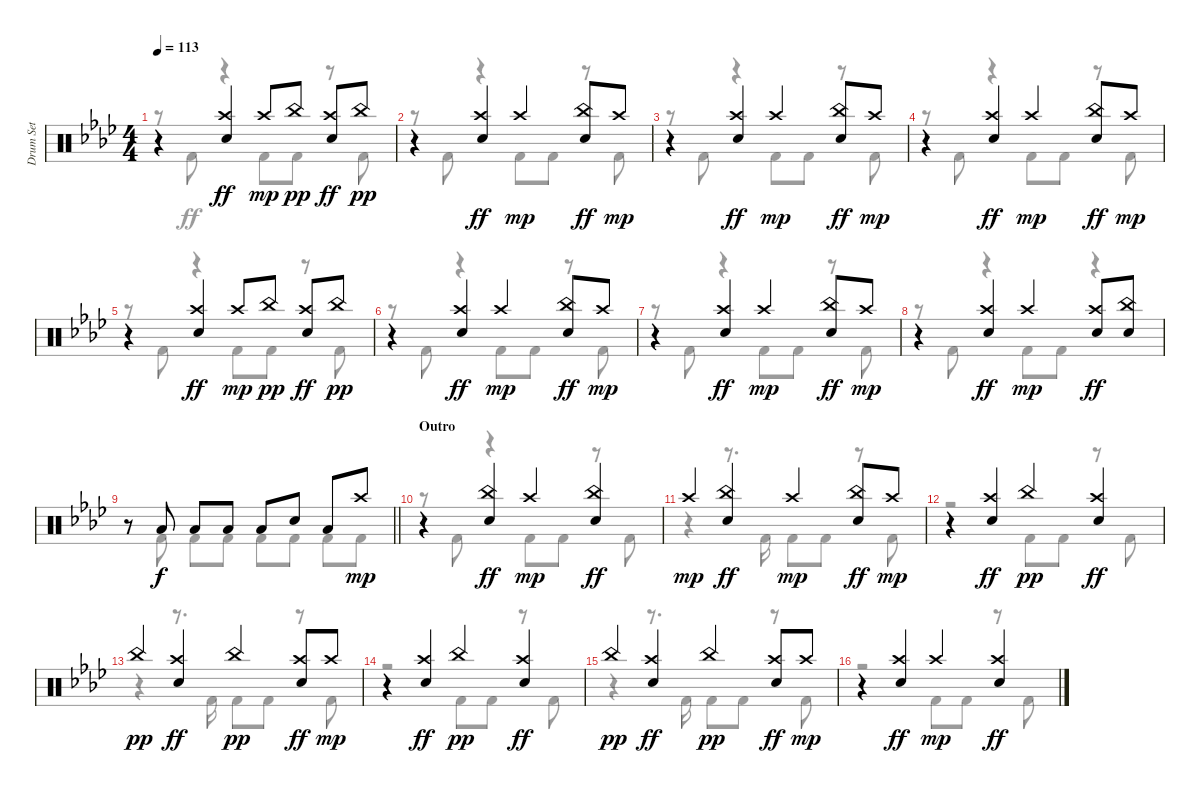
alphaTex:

\track ("Drum Set" "Drum Set") {instrument percussion}
\staff {score}
\articulation defaults
\voice
\ts (4 4)
\tempo 113
\clef neutral
\ks fminor
r.4{dy mp} ("Crash high (hit)" "Electric Snare (hit)").4{dy ff} "Crash high (hit)".8{dy mp} "China (hit)".8{dy pp} ("Crash high (hit)" "Electric Snare (hit)").8{dy ff} "China (hit)".8{dy pp} |
r.4 ("Crash high (hit)" "Electric Snare (hit)").4{dy ff} "Crash high (hit)".4{dy mp} ("China (hit)" "Electric Snare (hit)").8{dy ff} "Crash high (hit)".8{dy mp} |
r.4 ("Crash high (hit)" "Electric Snare (hit)").4{dy ff} "Crash high (hit)".4{dy mp} ("China (hit)" "Electric Snare (hit)").8{dy ff} "Crash high (hit)".8{dy mp} |
r.4 ("Crash high (hit)" "Electric Snare (hit)").4{dy ff} "Crash high (hit)".4{dy mp} ("China (hit)" "Electric Snare (hit)").8{dy ff} "Crash high (hit)".8{dy mp} |
r.4 ("Crash high (hit)" "Electric Snare (hit)").4{dy ff} "Crash high (hit)".8{dy mp} "China (hit)".8{dy pp} ("Crash high (hit)" "Electric Snare (hit)").8{dy ff} "China (hit)".8{dy pp} |
r.4 ("Crash high (hit)" "Electric Snare (hit)").4{dy ff} "Crash high (hit)".4{dy mp} ("China (hit)" "Electric Snare (hit)").8{dy ff} "Crash high (hit)".8{dy mp} |
r.4 ("Crash high (hit)" "Electric Snare (hit)").4{dy ff} "Crash high (hit)".4{dy mp} ("China (hit)" "Electric Snare (hit)").8{dy ff} "Crash high (hit)".8{dy mp} |
r.4 ("Crash high (hit)" "Electric Snare (hit)").4{dy ff} "Crash high (hit)".4{dy mp} ("Crash high (hit)" "Electric Snare (hit)").8{dy ff} ("China (hit)" "Electric Snare (hit)").8 |
\barLineRight lightlight
r.8 "Low Tom (hit)".8{dy f} "Low Tom (hit)".8 "Low Tom (hit)".8 "Low Tom (hit)".8 "Electric Snare (hit)".8{beam split} "Low Tom (hit)".8 "Crash high (hit)".8{dy mp} |
\section ("" "Outro")
r.4 ("China (hit)" "Electric Snare (hit)").4{dy ff} "Crash high (hit)".4{dy mp} ("China (hit)" "Electric Snare (hit)").4{dy ff} |
"Crash high (hit)".4{dy mp} ("China (hit)" "Electric Snare (hit)").4{dy ff} "Crash high (hit)".4{dy mp} ("China (hit)" "Electric Snare (hit)").8{dy ff} "Crash high (hit)".8{dy mp} |
r.4 ("Crash high (hit)" "Electric Snare (hit)").4{dy ff} "China (hit)".4{dy pp} ("Crash high (hit)" "Electric Snare (hit)").4{dy ff} |
"China (hit)".4{dy pp} ("Crash high (hit)" "Electric Snare (hit)").4{dy ff} "China (hit)".4{dy pp} ("Crash high (hit)" "Electric Snare (hit)").8{dy ff} "Crash high (hit)".8{dy mp} |
r.4 ("Crash high (hit)" "Electric Snare (hit)").4{dy ff} "China (hit)".4{dy pp} ("Crash high (hit)" "Electric Snare (hit)").4{dy ff} |
"China (hit)".4{dy pp} ("Crash high (hit)" "Electric Snare (hit)").4{dy ff} "China (hit)".4{dy pp} ("Crash high (hit)" "Electric Snare (hit)").8{dy ff} "Crash high (hit)".8{dy mp} |
r.4 ("Crash high (hit)" "Electric Snare (hit)").4{dy ff} "Crash high (hit)".4{dy mp} ("Crash high (hit)" "Electric Snare (hit)").4{dy ff}
\voice
\clef neutral
\ottava regular
\simile none
\ks fminor
r.8{dy ff} "Kick (hit) 2".8 r.4 "Kick (hit) 2".8 "Kick (hit) 2".8 r.8 "Kick (hit) 2".8 |
r.8 "Kick (hit) 2".8 r.4 "Kick (hit) 2".8 "Kick (hit) 2".8 r.8 "Kick (hit) 2".8 |
r.8 "Kick (hit) 2".8 r.4 "Kick (hit) 2".8 "Kick (hit) 2".8 r.8 "Kick (hit) 2".8 |
r.8 "Kick (hit) 2".8 r.4 "Kick (hit) 2".8 "Kick (hit) 2".8 r.8 "Kick (hit) 2".8 |
r.8 "Kick (hit) 2".8 r.4 "Kick (hit) 2".8 "Kick (hit) 2".8 r.8 "Kick (hit) 2".8 |
r.8 "Kick (hit) 2".8 r.4 "Kick (hit) 2".8 "Kick (hit) 2".8 r.8 "Kick (hit) 2".8 |
r.8 "Kick (hit) 2".8 r.4 "Kick (hit) 2".8 "Kick (hit) 2".8 r.8 "Kick (hit) 2".8 |
r.8 "Kick (hit) 2".8 r.4 "Kick (hit) 2".8 "Kick (hit) 2".8 r.4 |
\barLineRight lightlight
r.8 "Kick (hit) 2".8 "Kick (hit) 2".8 "Kick (hit) 2".8 "Kick (hit) 2".8 "Kick (hit) 2".8 "Kick (hit) 2".8 "Kick (hit) 2".8 |
r.8 "Kick (hit) 2".8 r.4 "Kick (hit) 2".8 "Kick (hit) 2".8 r.8 "Kick (hit) 2".8 |
r.4 r.8{d} "Kick (hit) 2".16 "Kick (hit) 2".8 "Kick (hit) 2".8 r.8 "Kick (hit) 2".8 |
r.2 "Kick (hit) 2".8 "Kick (hit) 2".8 r.8 "Kick (hit) 2".8 |
r.4 r.8{d} "Kick (hit) 2".16 "Kick (hit) 2".8 "Kick (hit) 2".8 r.8 "Kick (hit) 2".8 |
r.2 "Kick (hit) 2".8 "Kick (hit) 2".8 r.8 "Kick (hit) 2".8 |
r.4 r.8{d} "Kick (hit) 2".16 "Kick (hit) 2".8 "Kick (hit) 2".8 r.8 "Kick (hit) 2".8 |
r.2 "Kick (hit) 2".8 "Kick (hit) 2".8 r.8 "Kick (hit) 2".8
